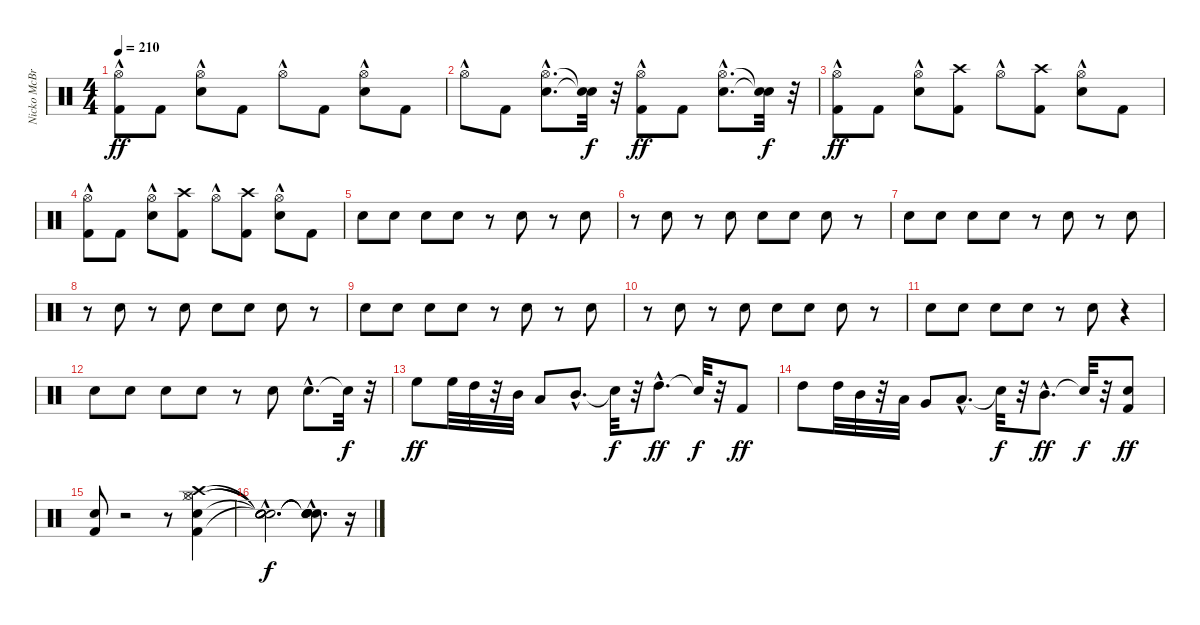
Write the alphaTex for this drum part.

\track ("Nicko McBrain" "Nicko McBr") {instrument percussion}
\staff {score}
\articulation defaults
\ts (4 4)
\tempo 210
\clef neutral
\ks c
("Kick (hit) 2" "Hi-Hat (open)"{hac}).8{dy ff} "Kick (hit) 2".8 ("Snare (hit) 2" "Hi-Hat (open)"{hac}).8 "Kick (hit) 2".8 "Hi-Hat (open)"{hac}.8 "Kick (hit) 2".8 ("Snare (hit) 2" "Hi-Hat (open)"{hac}).8 "Kick (hit) 2".8 |
"Hi-Hat (open)"{hac}.8 "Kick (hit) 2".8 ("Snare (hit) 2"{hac} "Hi-Hat (open)"{hac}).8{d} ("Snare (hit)"{t} "Snare (hit)"{t}).32{dy f} r.32 ("Kick (hit) 2" "Hi-Hat (open)"{hac}).8{dy ff} "Kick (hit) 2".8 ("Snare (hit) 2"{hac} "Hi-Hat (open)"{hac}).8{d} ("Snare (hit)"{t} "Snare (hit)"{t}).32{dy f} r.32 |
("Kick (hit) 2" "Hi-Hat (open)"{hac}).8{dy ff} "Kick (hit) 2".8 ("Snare (hit) 2" "Hi-Hat (open)"{hac}).8 ("Kick (hit) 2" "Crash high (hit)").8 "Hi-Hat (open)"{hac}.8 ("Kick (hit) 2" "Crash high (hit)").8 ("Snare (hit) 2" "Hi-Hat (open)"{hac}).8 "Kick (hit) 2".8 |
("Kick (hit) 2" "Hi-Hat (open)"{hac}).8 "Kick (hit) 2".8 ("Snare (hit) 2" "Hi-Hat (open)"{hac}).8 ("Kick (hit) 2" "Crash high (hit)").8 "Hi-Hat (open)"{hac}.8 ("Kick (hit) 2" "Crash high (hit)").8 ("Snare (hit) 2" "Hi-Hat (open)"{hac}).8 "Kick (hit) 2".8 |
"Snare (hit) 2".8 "Snare (hit) 2".8 "Snare (hit) 2".8 "Snare (hit) 2".8 r.8 "Snare (hit) 2".8 r.8 "Snare (hit) 2".8 |
r.8 "Snare (hit) 2".8 r.8 "Snare (hit) 2".8 "Snare (hit) 2".8 "Snare (hit) 2".8 "Snare (hit) 2".8 r.8 |
"Snare (hit) 2".8 "Snare (hit) 2".8 "Snare (hit) 2".8 "Snare (hit) 2".8 r.8 "Snare (hit) 2".8 r.8 "Snare (hit) 2".8 |
r.8 "Snare (hit) 2".8 r.8 "Snare (hit) 2".8 "Snare (hit) 2".8 "Snare (hit) 2".8 "Snare (hit) 2".8 r.8 |
"Snare (hit) 2".8 "Snare (hit) 2".8 "Snare (hit) 2".8 "Snare (hit) 2".8 r.8 "Snare (hit) 2".8 r.8 "Snare (hit) 2".8 |
r.8 "Snare (hit) 2".8 r.8 "Snare (hit) 2".8 "Snare (hit) 2".8 "Snare (hit) 2".8 "Snare (hit) 2".8 r.8 |
"Snare (hit) 2".8 "Snare (hit) 2".8 "Snare (hit) 2".8 "Snare (hit) 2".8 r.8 "Snare (hit) 2".8 r.4 |
"Snare (hit) 2".8 "Snare (hit) 2".8 "Snare (hit) 2".8 "Snare (hit) 2".8 r.8 "Snare (hit) 2".8 "Snare (hit) 2"{hac}.8{d} "Snare (hit)"{t}.32{dy f} r.32 |
"High Floor Tom (hit)".8{dy ff} "High Floor Tom (hit)".32 "High Tom (hit)".32 r.32 "Mid Tom (hit)".32 "Low Tom (hit)".8 "Mid Tom (hit)"{hac}.8{d} "Snare (hit)"{t}.32{dy f} r.32 "High Tom (hit)"{hac}.8{d dy ff} "Snare (hit)"{t}.32{dy f} r.32 "Kick (hit) 2".8{dy ff} |
"High Tom (hit)".8 "High Tom (hit)".32 "Mid Tom (hit)".32 r.32 "Low Tom (hit)".32 "Very Low Tom (hit)".8 "Low Tom (hit)"{hac}.8{d} "Snare (hit)"{t}.32{dy f} r.32 "Mid Tom (hit)"{hac}.8{d dy ff} "Snare (hit)"{t}.32{dy f} r.32 ("Kick (hit) 2" "Snare (hit) 2").8{dy ff} |
("Kick (hit) 2" "Snare (hit) 2").8 r.2 r.8 ("Kick (hit) 2" "Snare (hit) 2" "Hi-Hat (closed)" "Hi-Hat (open)" "Crash high (hit)").4 |
("Snare (hit)"{hac t} "Snare (hit)"{hac t} "Snare (hit)"{hac t} "Snare (hit)"{hac t} "Snare (hit)"{hac t}).2{d dy f} ("Snare (hit)"{hac t} "Snare (hit)"{hac t} "Snare (hit)"{hac t} "Snare (hit)"{hac t} "Snare (hit)"{hac t}).8{d} r.16
